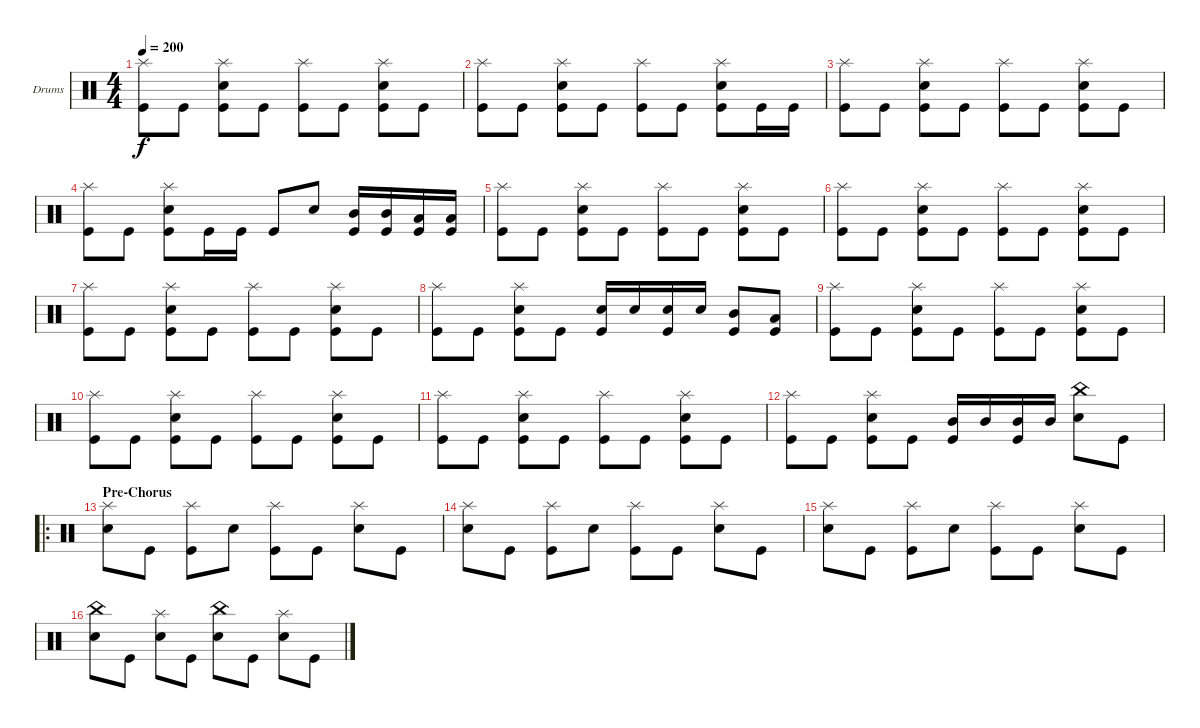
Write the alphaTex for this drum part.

\defaultSystemsLayout 4
\bracketExtendMode groupsimilarinstruments
\firstSystemTrackNameOrientation horizontal
\otherSystemsTrackNameOrientation horizontal
\track ("Drumkit" "Drums") {instrument percussion}
\staff {score}
\articulation defaults
\ts (4 4)
\tempo 200
\clef neutral
\ks c
("Splash (hit)" "Kick (hit)").8{dy f} "Kick (hit)".8 ("Splash (hit)" "Kick (hit)" "Snare (hit) 2").8 "Kick (hit)".8 ("Splash (hit)" "Kick (hit)").8 "Kick (hit)".8 ("Splash (hit)" "Kick (hit)" "Snare (hit) 2").8 "Kick (hit)".8 |
("Splash (hit)" "Kick (hit)").8 "Kick (hit)".8 ("Splash (hit)" "Kick (hit)" "Snare (hit) 2").8 "Kick (hit)".8 ("Splash (hit)" "Kick (hit)").8 "Kick (hit)".8 ("Splash (hit)" "Kick (hit)" "Snare (hit) 2").8 "Kick (hit)".16 "Kick (hit)".16 |
("Splash (hit)" "Kick (hit)").8 "Kick (hit)".8 ("Splash (hit)" "Kick (hit)" "Snare (hit) 2").8 "Kick (hit)".8 ("Splash (hit)" "Kick (hit)").8 "Kick (hit)".8 ("Splash (hit)" "Kick (hit)" "Snare (hit) 2").8 "Kick (hit)".8 |
("Splash (hit)" "Kick (hit)").8 "Kick (hit)".8 ("Splash (hit)" "Kick (hit)" "Snare (hit) 2").8 "Kick (hit)".16 "Kick (hit)".16 "Kick (hit)".8 "Snare (hit) 2".8 ("Kick (hit)" "Mid Tom (hit)").16 ("Mid Tom (hit)" "Kick (hit)").16 ("Kick (hit)" "Low Tom (hit)").16 ("Low Tom (hit)" "Kick (hit)").16 |
("Splash (hit)" "Kick (hit)").8 "Kick (hit)".8 ("Splash (hit)" "Kick (hit)" "Snare (hit) 2").8 "Kick (hit)".8 ("Splash (hit)" "Kick (hit)").8 "Kick (hit)".8 ("Splash (hit)" "Kick (hit)" "Snare (hit) 2").8 "Kick (hit)".8 |
("Splash (hit)" "Kick (hit)").8 "Kick (hit)".8 ("Splash (hit)" "Kick (hit)" "Snare (hit) 2").8 "Kick (hit)".8 ("Splash (hit)" "Kick (hit)").8 "Kick (hit)".8 ("Splash (hit)" "Kick (hit)" "Snare (hit) 2").8 "Kick (hit)".8 |
("Splash (hit)" "Kick (hit)").8 "Kick (hit)".8 ("Splash (hit)" "Kick (hit)" "Snare (hit) 2").8 "Kick (hit)".8 ("Splash (hit)" "Kick (hit)").8 "Kick (hit)".8 ("Splash (hit)" "Kick (hit)" "Snare (hit) 2").8 "Kick (hit)".8 |
("Splash (hit)" "Kick (hit)").8 "Kick (hit)".8 ("Splash (hit)" "Kick (hit)" "Snare (hit) 2").8 "Kick (hit)".8 ("Kick (hit)" "Snare (hit) 2").16 "Snare (hit) 2".16 ("Snare (hit) 2" "Kick (hit)").16 "Snare (hit) 2".16 ("Kick (hit)" "Mid Tom (hit)").8 ("Low Tom (hit)" "Kick (hit)").8 |
("Splash (hit)" "Kick (hit)").8 "Kick (hit)".8 ("Splash (hit)" "Kick (hit)" "Snare (hit) 2").8 "Kick (hit)".8 ("Splash (hit)" "Kick (hit)").8 "Kick (hit)".8 ("Splash (hit)" "Kick (hit)" "Snare (hit) 2").8 "Kick (hit)".8 |
("Splash (hit)" "Kick (hit)").8 "Kick (hit)".8 ("Splash (hit)" "Kick (hit)" "Snare (hit) 2").8 "Kick (hit)".8 ("Splash (hit)" "Kick (hit)").8 "Kick (hit)".8 ("Splash (hit)" "Kick (hit)" "Snare (hit) 2").8 "Kick (hit)".8 |
("Splash (hit)" "Kick (hit)").8 "Kick (hit)".8 ("Splash (hit)" "Kick (hit)" "Snare (hit) 2").8 "Kick (hit)".8 ("Splash (hit)" "Kick (hit)").8 "Kick (hit)".8 ("Splash (hit)" "Kick (hit)" "Snare (hit) 2").8 "Kick (hit)".8 |
("Splash (hit)" "Kick (hit)").8 "Kick (hit)".8 ("Splash (hit)" "Kick (hit)" "Snare (hit) 2").8 "Kick (hit)".8 ("Kick (hit)" "Mid Tom (hit)").16 "Mid Tom (hit)".16 ("Kick (hit)" "Mid Tom (hit)").16 "Mid Tom (hit)".16 ("Snare (hit) 2" "China (hit)").8 "Kick (hit)".8 |
\ro
\section ("" "Pre-Chorus")
("Snare (hit) 2" "Splash (hit)").8 "Kick (hit)".8 ("Kick (hit)" "Splash (hit)").8 "Snare (hit) 2".8 ("Kick (hit)" "Splash (hit)").8 "Kick (hit)".8 ("Snare (hit) 2" "Splash (hit)").8 "Kick (hit)".8 |
("Snare (hit) 2" "Splash (hit)").8 "Kick (hit)".8 ("Kick (hit)" "Splash (hit)").8 "Snare (hit) 2".8 ("Kick (hit)" "Splash (hit)").8 "Kick (hit)".8 ("Snare (hit) 2" "Splash (hit)").8 "Kick (hit)".8 |
("Snare (hit) 2" "Splash (hit)").8 "Kick (hit)".8 ("Kick (hit)" "Splash (hit)").8 "Snare (hit) 2".8 ("Kick (hit)" "Splash (hit)").8 "Kick (hit)".8 ("Snare (hit) 2" "Splash (hit)").8 "Kick (hit)".8 |
("Snare (hit) 2" "China (hit)").8 "Kick (hit)".8 ("Splash (hit)" "Snare (hit) 2").8 "Kick (hit)".8 ("Snare (hit) 2" "China (hit)").8 "Kick (hit)".8 ("Snare (hit) 2" "Splash (hit)").8 "Kick (hit)".8
